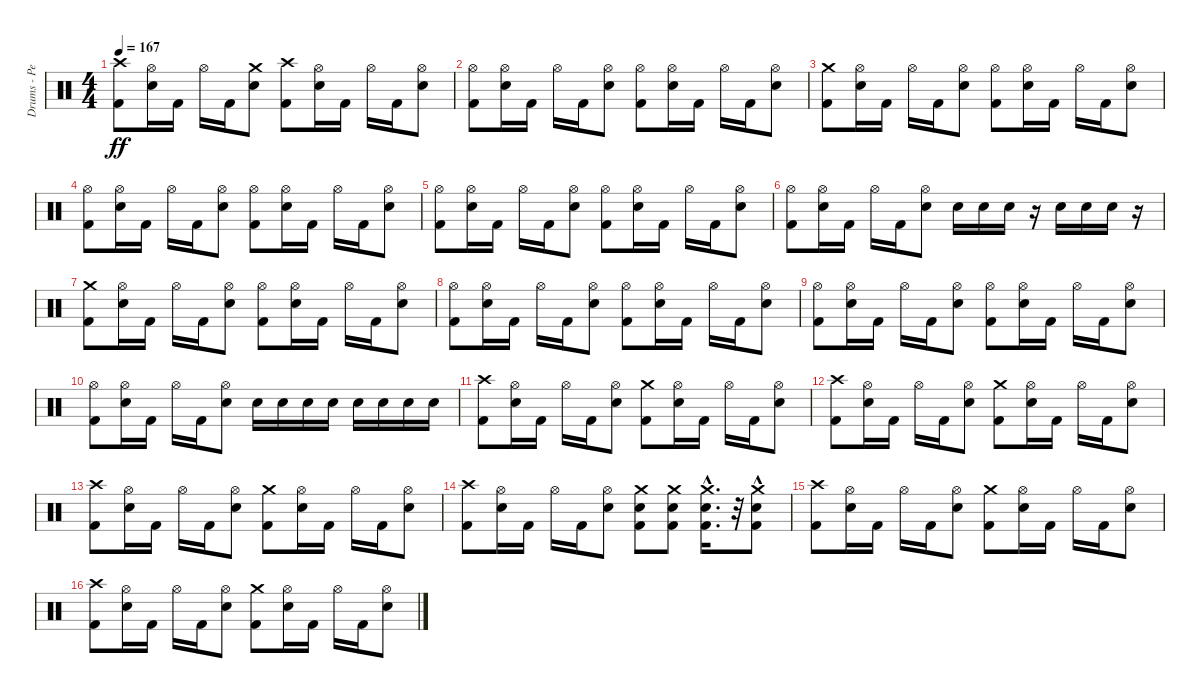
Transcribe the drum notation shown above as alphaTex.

\track ("Drums - Pete Finestone" "Drums - Pe") {instrument percussion}
\staff {score}
\articulation defaults
\ts (4 4)
\tempo 167
\clef neutral
\ks c
("Kick (hit) 2" "Crash high (hit)").8{dy ff} ("Hi-Hat (open)" "Electric Snare (hit)").16 "Kick (hit) 2".16 "Hi-Hat (open)".16 "Kick (hit) 2".16 ("Electric Snare (hit)" "Crash medium (hit)").8 ("Kick (hit) 2" "Crash high (hit)").8 ("Hi-Hat (open)" "Electric Snare (hit)").16 "Kick (hit) 2".16 "Hi-Hat (open)".16 "Kick (hit) 2".16 ("Hi-Hat (open)" "Electric Snare (hit)").8 |
("Kick (hit) 2" "Hi-Hat (open)").8 ("Hi-Hat (open)" "Electric Snare (hit)").16 "Kick (hit) 2".16 "Hi-Hat (open)".16 "Kick (hit) 2".16 ("Hi-Hat (open)" "Electric Snare (hit)").8 ("Kick (hit) 2" "Hi-Hat (open)").8 ("Hi-Hat (open)" "Electric Snare (hit)").16 "Kick (hit) 2".16 "Hi-Hat (open)".16 "Kick (hit) 2".16 ("Electric Snare (hit)" "Hi-Hat (open)").8 |
("Kick (hit) 2" "Crash medium (hit)").8 ("Hi-Hat (open)" "Electric Snare (hit)").16 "Kick (hit) 2".16 "Hi-Hat (open)".16 "Kick (hit) 2".16 ("Hi-Hat (open)" "Electric Snare (hit)").8 ("Kick (hit) 2" "Hi-Hat (open)").8 ("Hi-Hat (open)" "Electric Snare (hit)").16 "Kick (hit) 2".16 "Hi-Hat (open)".16 "Kick (hit) 2".16 ("Hi-Hat (open)" "Electric Snare (hit)").8 |
("Hi-Hat (open)" "Kick (hit) 2").8 ("Hi-Hat (open)" "Electric Snare (hit)").16 "Kick (hit) 2".16 "Hi-Hat (open)".16 "Kick (hit) 2".16 ("Hi-Hat (open)" "Electric Snare (hit)").8 ("Kick (hit) 2" "Hi-Hat (open)").8 ("Hi-Hat (open)" "Electric Snare (hit)").16 "Kick (hit) 2".16 "Hi-Hat (open)".16 "Kick (hit) 2".16 ("Hi-Hat (open)" "Electric Snare (hit)").8 |
("Kick (hit) 2" "Hi-Hat (open)").8 ("Hi-Hat (open)" "Electric Snare (hit)").16 "Kick (hit) 2".16 "Hi-Hat (open)".16 "Kick (hit) 2".16 ("Hi-Hat (open)" "Electric Snare (hit)").8 ("Kick (hit) 2" "Hi-Hat (open)").8 ("Hi-Hat (open)" "Electric Snare (hit)").16 "Kick (hit) 2".16 "Hi-Hat (open)".16 "Kick (hit) 2".16 ("Hi-Hat (open)" "Electric Snare (hit)").8 |
("Kick (hit) 2" "Hi-Hat (open)").8 ("Hi-Hat (open)" "Electric Snare (hit)").16 "Kick (hit) 2".16 "Hi-Hat (open)".16 "Kick (hit) 2".16 ("Hi-Hat (open)" "Electric Snare (hit)").8 "Electric Snare (hit)".16 "Electric Snare (hit)".16 "Electric Snare (hit)".16 r.16 "Electric Snare (hit)".16 "Electric Snare (hit)".16 "Electric Snare (hit)".16 r.16 |
("Kick (hit) 2" "Crash medium (hit)").8 ("Hi-Hat (open)" "Electric Snare (hit)").16 "Kick (hit) 2".16 "Hi-Hat (open)".16 "Kick (hit) 2".16 ("Hi-Hat (open)" "Electric Snare (hit)").8 ("Kick (hit) 2" "Hi-Hat (open)").8 ("Hi-Hat (open)" "Electric Snare (hit)").16 "Kick (hit) 2".16 "Hi-Hat (open)".16 "Kick (hit) 2".16 ("Hi-Hat (open)" "Electric Snare (hit)").8 |
("Kick (hit) 2" "Hi-Hat (open)").8 ("Hi-Hat (open)" "Electric Snare (hit)").16 "Kick (hit) 2".16 "Hi-Hat (open)".16 "Kick (hit) 2".16 ("Hi-Hat (open)" "Electric Snare (hit)").8 ("Kick (hit) 2" "Hi-Hat (open)").8 ("Hi-Hat (open)" "Electric Snare (hit)").16 "Kick (hit) 2".16 "Hi-Hat (open)".16 "Kick (hit) 2".16 ("Hi-Hat (open)" "Electric Snare (hit)").8 |
("Kick (hit) 2" "Hi-Hat (open)").8 ("Hi-Hat (open)" "Electric Snare (hit)").16 "Kick (hit) 2".16 "Hi-Hat (open)".16 "Kick (hit) 2".16 ("Hi-Hat (open)" "Electric Snare (hit)").8 ("Kick (hit) 2" "Hi-Hat (open)").8 ("Hi-Hat (open)" "Electric Snare (hit)").16 "Kick (hit) 2".16 "Hi-Hat (open)".16 "Kick (hit) 2".16 ("Hi-Hat (open)" "Electric Snare (hit)").8 |
("Kick (hit) 2" "Hi-Hat (open)").8 ("Hi-Hat (open)" "Electric Snare (hit)").16 "Kick (hit) 2".16 "Hi-Hat (open)".16 "Kick (hit) 2".16 ("Hi-Hat (open)" "Electric Snare (hit)").8 "Electric Snare (hit)".16 "Electric Snare (hit)".16 "Electric Snare (hit)".16 "Electric Snare (hit)".16 "Electric Snare (hit)".16 "Electric Snare (hit)".16 "Electric Snare (hit)".16 "Electric Snare (hit)".16 |
("Kick (hit) 2" "Crash high (hit)").8 ("Electric Snare (hit)" "Hi-Hat (open)").16 "Kick (hit) 2".16 "Hi-Hat (open)".16 "Kick (hit) 2".16 ("Hi-Hat (open)" "Electric Snare (hit)").8 ("Crash medium (hit)" "Kick (hit) 2").8 ("Hi-Hat (open)" "Electric Snare (hit)").16 "Kick (hit) 2".16 "Hi-Hat (open)".16 "Kick (hit) 2".16 ("Hi-Hat (open)" "Electric Snare (hit)").8 |
("Kick (hit) 2" "Crash high (hit)").8 ("Electric Snare (hit)" "Hi-Hat (open)").16 "Kick (hit) 2".16 "Hi-Hat (open)".16 "Kick (hit) 2".16 ("Hi-Hat (open)" "Electric Snare (hit)").8 ("Crash medium (hit)" "Kick (hit) 2").8 ("Hi-Hat (open)" "Electric Snare (hit)").16 "Kick (hit) 2".16 "Hi-Hat (open)".16 "Kick (hit) 2".16 ("Hi-Hat (open)" "Electric Snare (hit)").8 |
("Kick (hit) 2" "Crash high (hit)").8 ("Electric Snare (hit)" "Hi-Hat (open)").16 "Kick (hit) 2".16 "Hi-Hat (open)".16 "Kick (hit) 2".16 ("Hi-Hat (open)" "Electric Snare (hit)").8 ("Crash medium (hit)" "Kick (hit) 2").8 ("Hi-Hat (open)" "Electric Snare (hit)").16 "Kick (hit) 2".16 "Hi-Hat (open)".16 "Kick (hit) 2".16 ("Hi-Hat (open)" "Electric Snare (hit)").8 |
("Kick (hit) 2" "Crash high (hit)").8 ("Electric Snare (hit)" "Hi-Hat (open)").16 "Kick (hit) 2".16 "Hi-Hat (open)".16 "Kick (hit) 2".16 ("Hi-Hat (open)" "Electric Snare (hit)").8 ("Crash medium (hit)" "Kick (hit) 2" "Electric Snare (hit)").8 ("Crash medium (hit)" "Kick (hit) 2" "Electric Snare (hit)").8 ("Crash medium (hit)"{hac} "Kick (hit) 2" "Electric Snare (hit)").16{d} r.32 ("Crash medium (hit)"{hac} "Kick (hit) 2" "Electric Snare (hit)").8 |
("Kick (hit) 2" "Crash high (hit)").8 ("Electric Snare (hit)" "Hi-Hat (open)").16 "Kick (hit) 2".16 "Hi-Hat (open)".16 "Kick (hit) 2".16 ("Hi-Hat (open)" "Electric Snare (hit)").8 ("Crash medium (hit)" "Kick (hit) 2").8 ("Hi-Hat (open)" "Electric Snare (hit)").16 "Kick (hit) 2".16 "Hi-Hat (open)".16 "Kick (hit) 2".16 ("Hi-Hat (open)" "Electric Snare (hit)").8 |
("Kick (hit) 2" "Crash high (hit)").8 ("Electric Snare (hit)" "Hi-Hat (open)").16 "Kick (hit) 2".16 "Hi-Hat (open)".16 "Kick (hit) 2".16 ("Hi-Hat (open)" "Electric Snare (hit)").8 ("Crash medium (hit)" "Kick (hit) 2").8 ("Hi-Hat (open)" "Electric Snare (hit)").16 "Kick (hit) 2".16 "Hi-Hat (open)".16 "Kick (hit) 2".16 ("Hi-Hat (open)" "Electric Snare (hit)").8
